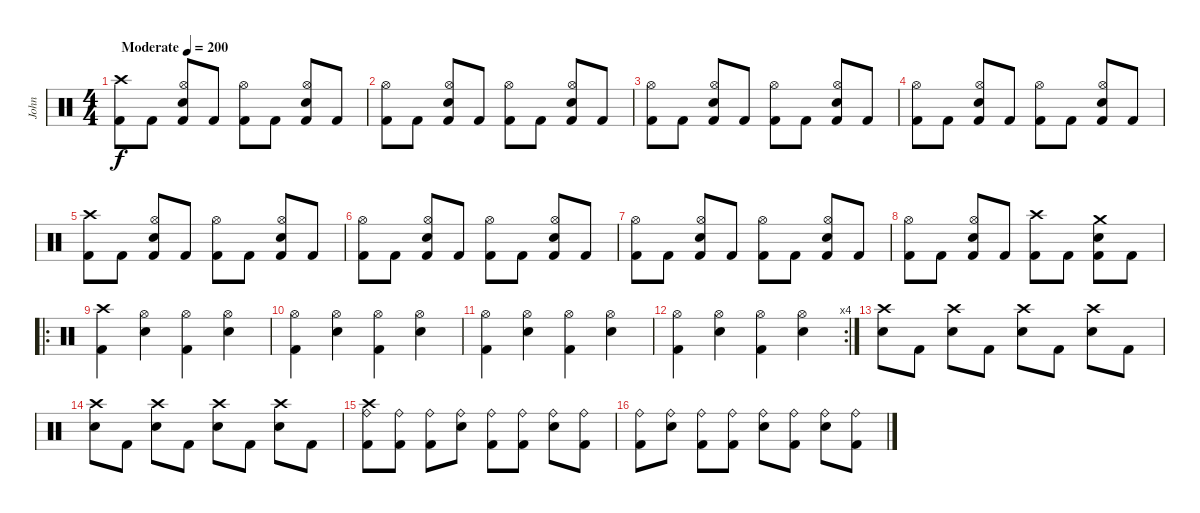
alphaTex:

\track ("John" "John") {instrument percussion}
\staff {score}
\articulation defaults
\ts (4 4)
\tempo (200 "Moderate")
\clef neutral
\ks c
("Crash high (hit)" "Kick (hit) 2").8{dy f} "Kick (hit) 2".8 ("Hi-Hat (open)" "Electric Snare (hit)" "Kick (hit) 2").8 "Kick (hit) 2".8 ("Hi-Hat (open)" "Kick (hit) 2").8 "Kick (hit) 2".8 ("Hi-Hat (open)" "Electric Snare (hit)" "Kick (hit) 2").8 "Kick (hit) 2".8 |
("Hi-Hat (open)" "Kick (hit) 2").8 "Kick (hit) 2".8 ("Hi-Hat (open)" "Electric Snare (hit)" "Kick (hit) 2").8 "Kick (hit) 2".8 ("Hi-Hat (open)" "Kick (hit) 2").8 "Kick (hit) 2".8 ("Hi-Hat (open)" "Electric Snare (hit)" "Kick (hit) 2").8 "Kick (hit) 2".8 |
("Hi-Hat (open)" "Kick (hit) 2").8 "Kick (hit) 2".8 ("Hi-Hat (open)" "Electric Snare (hit)" "Kick (hit) 2").8 "Kick (hit) 2".8 ("Hi-Hat (open)" "Kick (hit) 2").8 "Kick (hit) 2".8 ("Hi-Hat (open)" "Electric Snare (hit)" "Kick (hit) 2").8 "Kick (hit) 2".8 |
("Hi-Hat (open)" "Kick (hit) 2").8 "Kick (hit) 2".8 ("Hi-Hat (open)" "Electric Snare (hit)" "Kick (hit) 2").8 "Kick (hit) 2".8 ("Hi-Hat (open)" "Kick (hit) 2").8 "Kick (hit) 2".8 ("Hi-Hat (open)" "Electric Snare (hit)" "Kick (hit) 2").8 "Kick (hit) 2".8 |
("Crash high (hit)" "Kick (hit) 2").8 "Kick (hit) 2".8 ("Hi-Hat (open)" "Electric Snare (hit)" "Kick (hit) 2").8 "Kick (hit) 2".8 ("Hi-Hat (open)" "Kick (hit) 2").8 "Kick (hit) 2".8 ("Hi-Hat (open)" "Electric Snare (hit)" "Kick (hit) 2").8 "Kick (hit) 2".8 |
("Hi-Hat (open)" "Kick (hit) 2").8 "Kick (hit) 2".8 ("Hi-Hat (open)" "Electric Snare (hit)" "Kick (hit) 2").8 "Kick (hit) 2".8 ("Hi-Hat (open)" "Kick (hit) 2").8 "Kick (hit) 2".8 ("Hi-Hat (open)" "Electric Snare (hit)" "Kick (hit) 2").8 "Kick (hit) 2".8 |
("Hi-Hat (open)" "Kick (hit) 2").8 "Kick (hit) 2".8 ("Hi-Hat (open)" "Electric Snare (hit)" "Kick (hit) 2").8 "Kick (hit) 2".8 ("Hi-Hat (open)" "Kick (hit) 2").8 "Kick (hit) 2".8 ("Hi-Hat (open)" "Electric Snare (hit)" "Kick (hit) 2").8 "Kick (hit) 2".8 |
("Hi-Hat (open)" "Kick (hit) 2").8 "Kick (hit) 2".8 ("Hi-Hat (open)" "Electric Snare (hit)" "Kick (hit) 2").8 "Kick (hit) 2".8 ("Crash high (hit)" "Kick (hit) 2").8 "Kick (hit) 2".8 ("Crash medium (hit)" "Electric Snare (hit)" "Kick (hit) 2").8 "Kick (hit) 2".8 |
\ro
("Crash high (hit)" "Kick (hit) 2").4 ("Hi-Hat (open)" "Electric Snare (hit)").4 ("Hi-Hat (open)" "Kick (hit) 2").4 ("Hi-Hat (open)" "Electric Snare (hit)").4 |
("Hi-Hat (open)" "Kick (hit) 2").4 ("Hi-Hat (open)" "Electric Snare (hit)").4 ("Hi-Hat (open)" "Kick (hit) 2").4 ("Hi-Hat (open)" "Electric Snare (hit)").4 |
("Hi-Hat (open)" "Kick (hit) 2").4 ("Hi-Hat (open)" "Electric Snare (hit)").4 ("Hi-Hat (open)" "Kick (hit) 2").4 ("Hi-Hat (open)" "Electric Snare (hit)").4 |
\rc 4
("Hi-Hat (open)" "Kick (hit) 2").4 ("Hi-Hat (open)" "Electric Snare (hit)").4 ("Hi-Hat (open)" "Kick (hit) 2").4 ("Hi-Hat (open)" "Electric Snare (hit)").4 |
("Crash high (hit)" "Electric Snare (hit)").8 "Kick (hit) 2".8 ("Crash high (hit)" "Electric Snare (hit)").8 "Kick (hit) 2".8 ("Crash high (hit)" "Electric Snare (hit)").8 "Kick (hit) 2".8 ("Crash high (hit)" "Electric Snare (hit)").8 "Kick (hit) 2".8 |
("Crash high (hit)" "Electric Snare (hit)").8 "Kick (hit) 2".8 ("Crash high (hit)" "Electric Snare (hit)").8 "Kick (hit) 2".8 ("Crash high (hit)" "Electric Snare (hit)").8 "Kick (hit) 2".8 ("Crash high (hit)" "Electric Snare (hit)").8 "Kick (hit) 2".8 |
("Ride (bell)" "Crash high (hit)" "Kick (hit) 2").8 ("Ride (bell)" "Kick (hit) 2").8 ("Ride (bell)" "Kick (hit) 2").8 ("Ride (bell)" "Electric Snare (hit)").8 ("Ride (bell)" "Kick (hit) 2").8 ("Ride (bell)" "Kick (hit) 2").8 ("Ride (bell)" "Electric Snare (hit)").8 ("Ride (bell)" "Kick (hit) 2").8 |
("Ride (bell)" "Kick (hit) 2").8 ("Ride (bell)" "Electric Snare (hit)").8 ("Ride (bell)" "Kick (hit) 2").8 ("Ride (bell)" "Kick (hit) 2").8 ("Ride (bell)" "Electric Snare (hit)").8 ("Ride (bell)" "Kick (hit) 2").8 ("Ride (bell)" "Electric Snare (hit)").8 ("Ride (bell)" "Kick (hit) 2").8
